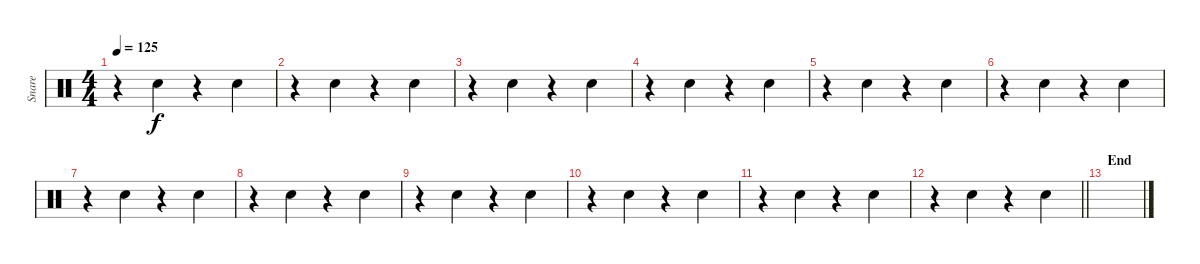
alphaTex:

\track ("Snare" "Snare") {instrument percussion}
\staff {score}
\articulation defaults
\ts (4 4)
\tempo 125
\clef neutral
\ks c
r.4{dy f} "Electric Snare (hit)".4 r.4 "Electric Snare (hit)".4 |
r.4 "Electric Snare (hit)".4 r.4 "Electric Snare (hit)".4 |
r.4 "Electric Snare (hit)".4 r.4 "Electric Snare (hit)".4 |
r.4 "Electric Snare (hit)".4 r.4 "Electric Snare (hit)".4 |
r.4 "Electric Snare (hit)".4 r.4 "Electric Snare (hit)".4 |
r.4 "Electric Snare (hit)".4 r.4 "Electric Snare (hit)".4 |
r.4 "Electric Snare (hit)".4 r.4 "Electric Snare (hit)".4 |
r.4 "Electric Snare (hit)".4 r.4 "Electric Snare (hit)".4 |
r.4 "Electric Snare (hit)".4 r.4 "Electric Snare (hit)".4 |
r.4 "Electric Snare (hit)".4 r.4 "Electric Snare (hit)".4 |
r.4 "Electric Snare (hit)".4 r.4 "Electric Snare (hit)".4 |
\barLineRight lightlight
r.4 "Electric Snare (hit)".4 r.4 "Electric Snare (hit)".4 |
\section ("" "End")
